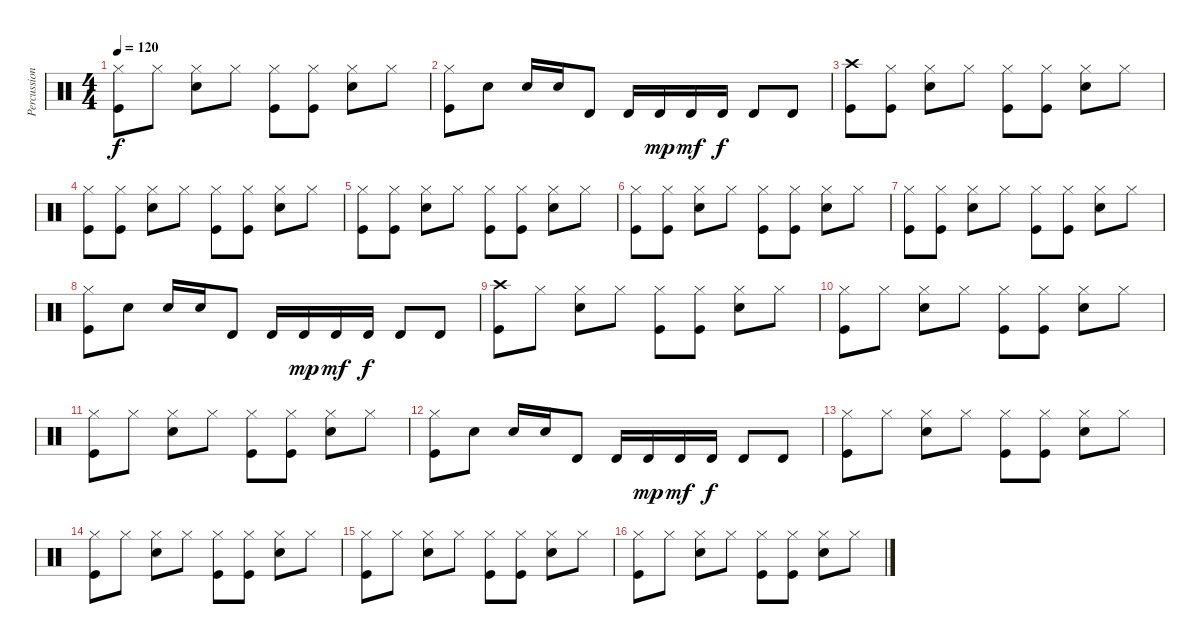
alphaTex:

\track ("Percussion" "Percussion") {instrument percussion}
\staff {score}
\articulation defaults
\ts (4 4)
\tempo 120
\clef neutral
\ks c
("Hi-Hat (closed)" "Kick (hit)").8{dy f} "Hi-Hat (closed)".8 ("Hi-Hat (closed)" "Snare (hit) 2").8 "Hi-Hat (closed)".8 ("Hi-Hat (closed)" "Kick (hit)").8 ("Hi-Hat (closed)" "Kick (hit)").8 ("Hi-Hat (closed)" "Snare (hit) 2").8 "Hi-Hat (closed)".8 |
("Hi-Hat (closed)" "Kick (hit)").8 "Snare (hit) 2".8 "Snare (hit) 2".16 "Snare (hit) 2".16 "Timbale high (hit)".8 "Timbale high (hit)".16 "Timbale high (hit)".16{dy mp} "Timbale high (hit)".16{dy mf} "Timbale high (hit)".16{dy f} "Timbale high (hit)".8 "Timbale high (hit)".8 |
("Crash high (hit)" "Kick (hit)").8 ("Hi-Hat (closed)" "Kick (hit)").8 ("Hi-Hat (closed)" "Snare (hit) 2").8 "Hi-Hat (closed)".8 ("Hi-Hat (closed)" "Kick (hit)").8 ("Hi-Hat (closed)" "Kick (hit)").8 ("Hi-Hat (closed)" "Snare (hit) 2").8 "Hi-Hat (closed)".8 |
("Hi-Hat (closed)" "Kick (hit)").8 ("Hi-Hat (closed)" "Kick (hit)").8 ("Hi-Hat (closed)" "Snare (hit) 2").8 "Hi-Hat (closed)".8 ("Hi-Hat (closed)" "Kick (hit)").8 ("Hi-Hat (closed)" "Kick (hit)").8 ("Hi-Hat (closed)" "Snare (hit) 2").8 "Hi-Hat (closed)".8 |
("Hi-Hat (closed)" "Kick (hit)").8 ("Hi-Hat (closed)" "Kick (hit)").8 ("Hi-Hat (closed)" "Snare (hit) 2").8 "Hi-Hat (closed)".8 ("Hi-Hat (closed)" "Kick (hit)").8 ("Hi-Hat (closed)" "Kick (hit)").8 ("Hi-Hat (closed)" "Snare (hit) 2").8 "Hi-Hat (closed)".8 |
("Hi-Hat (closed)" "Kick (hit)").8 ("Hi-Hat (closed)" "Kick (hit)").8 ("Hi-Hat (closed)" "Snare (hit) 2").8 "Hi-Hat (closed)".8 ("Hi-Hat (closed)" "Kick (hit)").8 ("Hi-Hat (closed)" "Kick (hit)").8 ("Hi-Hat (closed)" "Snare (hit) 2").8 "Hi-Hat (closed)".8 |
("Hi-Hat (closed)" "Kick (hit)").8 ("Hi-Hat (closed)" "Kick (hit)").8 ("Hi-Hat (closed)" "Snare (hit) 2").8 "Hi-Hat (closed)".8 ("Hi-Hat (closed)" "Kick (hit)").8 ("Hi-Hat (closed)" "Kick (hit)").8 ("Hi-Hat (closed)" "Snare (hit) 2").8 "Hi-Hat (closed)".8 |
("Hi-Hat (closed)" "Kick (hit)").8 "Snare (hit) 2".8 "Snare (hit) 2".16 "Snare (hit) 2".16 "Timbale high (hit)".8 "Timbale high (hit)".16 "Timbale high (hit)".16{dy mp} "Timbale high (hit)".16{dy mf} "Timbale high (hit)".16{dy f} "Timbale high (hit)".8 "Timbale high (hit)".8 |
("Crash high (hit)" "Kick (hit)").8 "Hi-Hat (closed)".8 ("Hi-Hat (closed)" "Snare (hit) 2").8 "Hi-Hat (closed)".8 ("Hi-Hat (closed)" "Kick (hit)").8 ("Hi-Hat (closed)" "Kick (hit)").8 ("Hi-Hat (closed)" "Snare (hit) 2").8 "Hi-Hat (closed)".8 |
("Hi-Hat (closed)" "Kick (hit)").8 "Hi-Hat (closed)".8 ("Hi-Hat (closed)" "Snare (hit) 2").8 "Hi-Hat (closed)".8 ("Hi-Hat (closed)" "Kick (hit)").8 ("Hi-Hat (closed)" "Kick (hit)").8 ("Hi-Hat (closed)" "Snare (hit) 2").8 "Hi-Hat (closed)".8 |
("Hi-Hat (closed)" "Kick (hit)").8 "Hi-Hat (closed)".8 ("Hi-Hat (closed)" "Snare (hit) 2").8 "Hi-Hat (closed)".8 ("Hi-Hat (closed)" "Kick (hit)").8 ("Hi-Hat (closed)" "Kick (hit)").8 ("Hi-Hat (closed)" "Snare (hit) 2").8 "Hi-Hat (closed)".8 |
("Hi-Hat (closed)" "Kick (hit)").8 "Snare (hit) 2".8 "Snare (hit) 2".16 "Snare (hit) 2".16 "Timbale high (hit)".8 "Timbale high (hit)".16 "Timbale high (hit)".16{dy mp} "Timbale high (hit)".16{dy mf} "Timbale high (hit)".16{dy f} "Timbale high (hit)".8 "Timbale high (hit)".8 |
("Hi-Hat (closed)" "Kick (hit)").8 "Hi-Hat (closed)".8 ("Hi-Hat (closed)" "Snare (hit) 2").8 "Hi-Hat (closed)".8 ("Hi-Hat (closed)" "Kick (hit)").8 ("Hi-Hat (closed)" "Kick (hit)").8 ("Hi-Hat (closed)" "Snare (hit) 2").8 "Hi-Hat (closed)".8 |
("Hi-Hat (closed)" "Kick (hit)").8 "Hi-Hat (closed)".8 ("Hi-Hat (closed)" "Snare (hit) 2").8 "Hi-Hat (closed)".8 ("Hi-Hat (closed)" "Kick (hit)").8 ("Hi-Hat (closed)" "Kick (hit)").8 ("Hi-Hat (closed)" "Snare (hit) 2").8 "Hi-Hat (closed)".8 |
("Hi-Hat (closed)" "Kick (hit)").8 "Hi-Hat (closed)".8 ("Hi-Hat (closed)" "Snare (hit) 2").8 "Hi-Hat (closed)".8 ("Hi-Hat (closed)" "Kick (hit)").8 ("Hi-Hat (closed)" "Kick (hit)").8 ("Hi-Hat (closed)" "Snare (hit) 2").8 "Hi-Hat (closed)".8 |
("Hi-Hat (closed)" "Kick (hit)").8 "Hi-Hat (closed)".8 ("Hi-Hat (closed)" "Snare (hit) 2").8 "Hi-Hat (closed)".8 ("Hi-Hat (closed)" "Kick (hit)").8 ("Hi-Hat (closed)" "Kick (hit)").8 ("Hi-Hat (closed)" "Snare (hit) 2").8 "Hi-Hat (closed)".8
